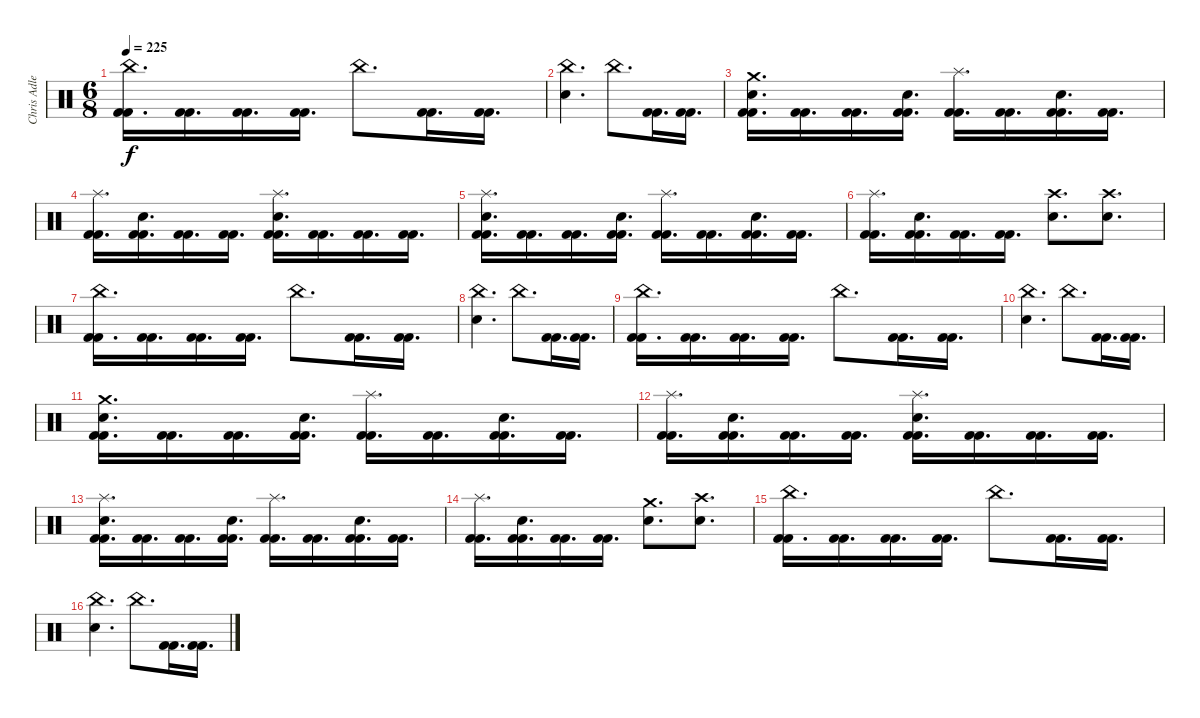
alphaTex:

\track ("Chris Adler" "Chris Adle") {instrument percussion}
\staff {score}
\articulation defaults
\ts (6 8)
\tempo 225
\clef neutral
\ks c
("China (hit)" "Kick (hit) 2" "Kick (hit) 2").16{d dy f} ("Kick (hit) 2" "Kick (hit) 2").16{d} ("Kick (hit) 2" "Kick (hit) 2").16{d} ("Kick (hit) 2" "Kick (hit) 2").16{d} "China (hit)".8{d} ("Kick (hit) 2" "Kick (hit) 2").16{d} ("Kick (hit) 2" "Kick (hit) 2").16{d} |
("China (hit)" "Electric Snare (hit)").4{d} "China (hit)".8{d} ("Kick (hit) 2" "Kick (hit) 2").16{d} ("Kick (hit) 2" "Kick (hit) 2").16{d} |
("Crash medium (hit)" "Electric Snare (hit)" "Kick (hit) 2" "Kick (hit) 2").16{d} ("Kick (hit) 2" "Kick (hit) 2").16{d} ("Kick (hit) 2" "Kick (hit) 2").16{d} ("Electric Snare (hit)" "Kick (hit) 2" "Kick (hit) 2").16{d} ("Splash (hit)" "Kick (hit) 2" "Kick (hit) 2").16{d} ("Kick (hit) 2" "Kick (hit) 2").16{d} ("Electric Snare (hit)" "Kick (hit) 2" "Kick (hit) 2").16{d} ("Kick (hit) 2" "Kick (hit) 2").16{d} |
("Splash (hit)" "Kick (hit) 2" "Kick (hit) 2").16{d} ("Electric Snare (hit)" "Kick (hit) 2" "Kick (hit) 2").16{d} ("Kick (hit) 2" "Kick (hit) 2").16{d} ("Kick (hit) 2" "Kick (hit) 2").16{d} ("Splash (hit)" "Electric Snare (hit)" "Kick (hit) 2" "Kick (hit) 2").16{d} ("Kick (hit) 2" "Kick (hit) 2").16{d} ("Kick (hit) 2" "Kick (hit) 2").16{d} ("Kick (hit) 2" "Kick (hit) 2").16{d} |
("Splash (hit)" "Electric Snare (hit)" "Kick (hit) 2" "Kick (hit) 2").16{d} ("Kick (hit) 2" "Kick (hit) 2").16{d} ("Kick (hit) 2" "Kick (hit) 2").16{d} ("Electric Snare (hit)" "Kick (hit) 2" "Kick (hit) 2").16{d} ("Splash (hit)" "Kick (hit) 2" "Kick (hit) 2").16{d} ("Kick (hit) 2" "Kick (hit) 2").16{d} ("Electric Snare (hit)" "Kick (hit) 2" "Kick (hit) 2").16{d} ("Kick (hit) 2" "Kick (hit) 2").16{d} |
("Splash (hit)" "Kick (hit) 2" "Kick (hit) 2").16{d} ("Electric Snare (hit)" "Kick (hit) 2" "Kick (hit) 2").16{d} ("Kick (hit) 2" "Kick (hit) 2").16{d} ("Kick (hit) 2" "Kick (hit) 2").16{d} ("Crash high (hit)" "Electric Snare (hit)").8{d} ("Crash high (hit)" "Electric Snare (hit)").8{d} |
("China (hit)" "Kick (hit) 2" "Kick (hit) 2").16{d} ("Kick (hit) 2" "Kick (hit) 2").16{d} ("Kick (hit) 2" "Kick (hit) 2").16{d} ("Kick (hit) 2" "Kick (hit) 2").16{d} "China (hit)".8{d} ("Kick (hit) 2" "Kick (hit) 2").16{d} ("Kick (hit) 2" "Kick (hit) 2").16{d} |
("China (hit)" "Electric Snare (hit)").4{d} "China (hit)".8{d} ("Kick (hit) 2" "Kick (hit) 2").16{d} ("Kick (hit) 2" "Kick (hit) 2").16{d} |
("China (hit)" "Kick (hit) 2" "Kick (hit) 2").16{d} ("Kick (hit) 2" "Kick (hit) 2").16{d} ("Kick (hit) 2" "Kick (hit) 2").16{d} ("Kick (hit) 2" "Kick (hit) 2").16{d} "China (hit)".8{d} ("Kick (hit) 2" "Kick (hit) 2").16{d} ("Kick (hit) 2" "Kick (hit) 2").16{d} |
("China (hit)" "Electric Snare (hit)").4{d} "China (hit)".8{d} ("Kick (hit) 2" "Kick (hit) 2").16{d} ("Kick (hit) 2" "Kick (hit) 2").16{d} |
("Crash medium (hit)" "Electric Snare (hit)" "Kick (hit) 2" "Kick (hit) 2").16{d} ("Kick (hit) 2" "Kick (hit) 2").16{d} ("Kick (hit) 2" "Kick (hit) 2").16{d} ("Electric Snare (hit)" "Kick (hit) 2" "Kick (hit) 2").16{d} ("Splash (hit)" "Kick (hit) 2" "Kick (hit) 2").16{d} ("Kick (hit) 2" "Kick (hit) 2").16{d} ("Electric Snare (hit)" "Kick (hit) 2" "Kick (hit) 2").16{d} ("Kick (hit) 2" "Kick (hit) 2").16{d} |
("Splash (hit)" "Kick (hit) 2" "Kick (hit) 2").16{d} ("Electric Snare (hit)" "Kick (hit) 2" "Kick (hit) 2").16{d} ("Kick (hit) 2" "Kick (hit) 2").16{d} ("Kick (hit) 2" "Kick (hit) 2").16{d} ("Splash (hit)" "Electric Snare (hit)" "Kick (hit) 2" "Kick (hit) 2").16{d} ("Kick (hit) 2" "Kick (hit) 2").16{d} ("Kick (hit) 2" "Kick (hit) 2").16{d} ("Kick (hit) 2" "Kick (hit) 2").16{d} |
("Splash (hit)" "Electric Snare (hit)" "Kick (hit) 2" "Kick (hit) 2").16{d} ("Kick (hit) 2" "Kick (hit) 2").16{d} ("Kick (hit) 2" "Kick (hit) 2").16{d} ("Electric Snare (hit)" "Kick (hit) 2" "Kick (hit) 2").16{d} ("Splash (hit)" "Kick (hit) 2" "Kick (hit) 2").16{d} ("Kick (hit) 2" "Kick (hit) 2").16{d} ("Electric Snare (hit)" "Kick (hit) 2" "Kick (hit) 2").16{d} ("Kick (hit) 2" "Kick (hit) 2").16{d} |
("Splash (hit)" "Kick (hit) 2" "Kick (hit) 2").16{d} ("Electric Snare (hit)" "Kick (hit) 2" "Kick (hit) 2").16{d} ("Kick (hit) 2" "Kick (hit) 2").16{d} ("Kick (hit) 2" "Kick (hit) 2").16{d} ("Crash medium (hit)" "Electric Snare (hit)").8{d} ("Crash high (hit)" "Electric Snare (hit)").8{d} |
("China (hit)" "Kick (hit) 2" "Kick (hit) 2").16{d} ("Kick (hit) 2" "Kick (hit) 2").16{d} ("Kick (hit) 2" "Kick (hit) 2").16{d} ("Kick (hit) 2" "Kick (hit) 2").16{d} "China (hit)".8{d} ("Kick (hit) 2" "Kick (hit) 2").16{d} ("Kick (hit) 2" "Kick (hit) 2").16{d} |
("China (hit)" "Electric Snare (hit)").4{d} "China (hit)".8{d} ("Kick (hit) 2" "Kick (hit) 2").16{d} ("Kick (hit) 2" "Kick (hit) 2").16{d}
